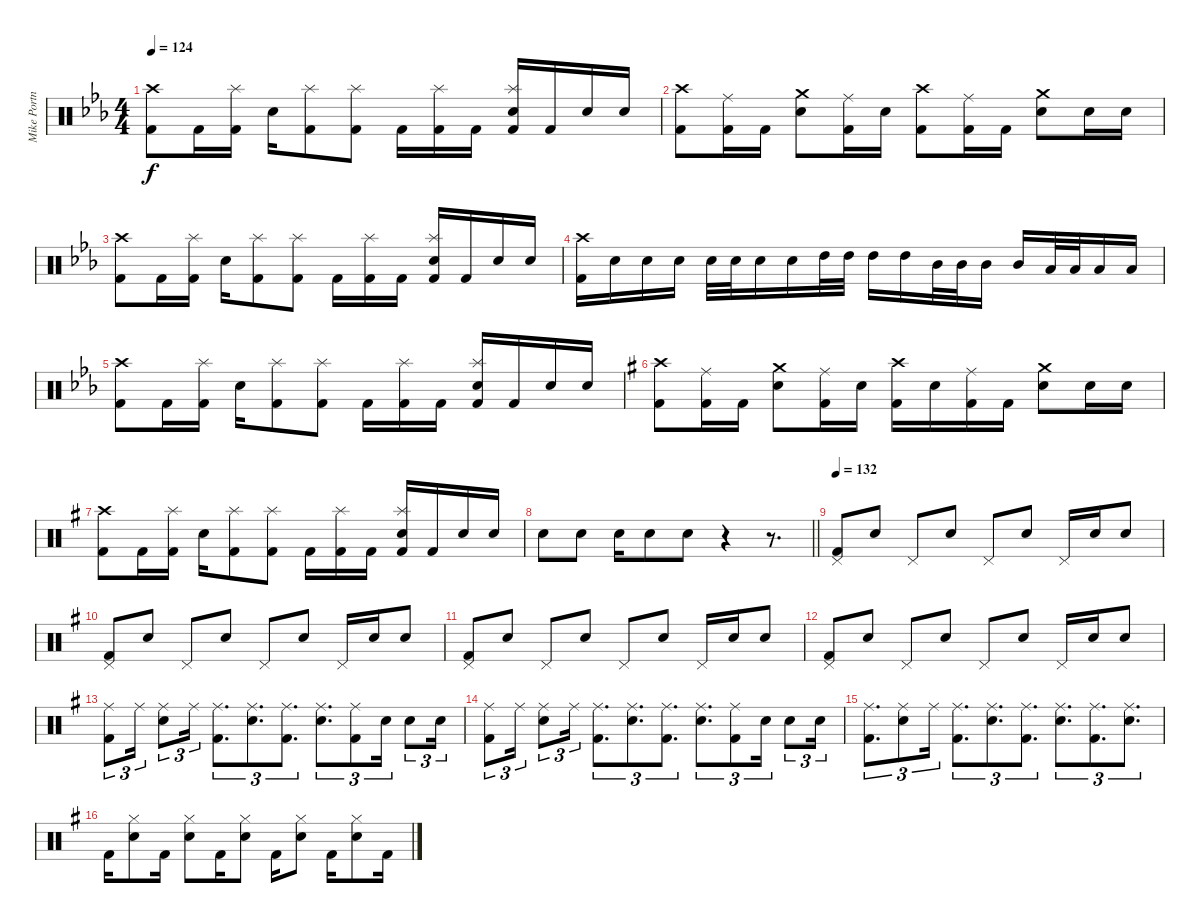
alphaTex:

\track ("Mike Portnoy" "Mike Portn") {instrument percussion}
\staff {score}
\articulation defaults
\ts (4 4)
\tempo 124
\clef neutral
\ks eb
("Crash high (hit)" "Kick (hit) 2").8{dy f} "Kick (hit) 2".16 ("Splash (hit)" "Kick (hit) 2").16 "Snare (hit) 2".16 ("Splash (hit)" "Kick (hit) 2").8 ("Splash (hit)" "Kick (hit) 2").8 "Kick (hit) 2".16 ("Splash (hit)" "Kick (hit) 2").16 "Kick (hit) 2".16 ("Splash (hit)" "Snare (hit) 2" "Kick (hit) 2").16 "Kick (hit) 2".16 "Snare (hit) 2".16 "Snare (hit) 2".16 |
("Crash high (hit)" "Kick (hit) 2").8 ("Ride (middle)" "Kick (hit) 2").16 "Kick (hit) 2".16 ("Crash medium (hit)" "Snare (hit) 2").8 ("Ride (middle)" "Kick (hit) 2").16 "Snare (hit) 2".16 ("Crash high (hit)" "Kick (hit) 2").8 ("Ride (middle)" "Kick (hit) 2").16 "Kick (hit) 2".16 ("Crash medium (hit)" "Snare (hit) 2").8 "Snare (hit) 2".16 "Snare (hit) 2".16 |
("Crash high (hit)" "Kick (hit) 2").8 "Kick (hit) 2".16 ("Splash (hit)" "Kick (hit) 2").16 "Snare (hit) 2".16 ("Splash (hit)" "Kick (hit) 2").8 ("Splash (hit)" "Kick (hit) 2").8 "Kick (hit) 2".16 ("Splash (hit)" "Kick (hit) 2").16 "Kick (hit) 2".16 ("Splash (hit)" "Snare (hit) 2" "Kick (hit) 2").16 "Kick (hit) 2".16 "Snare (hit) 2".16 "Snare (hit) 2".16 |
("Crash high (hit)" "Kick (hit) 2").16 "Snare (hit) 2".16 "Snare (hit) 2".16 "Snare (hit) 2".16 "Snare (hit) 2".32 "Snare (hit) 2".32 "Snare (hit) 2".16 "Snare (hit) 2".16 "High Tom (hit)".32 "High Tom (hit)".32 "High Tom (hit)".16 "High Tom (hit)".16 "Mid Tom (hit)".32 "Mid Tom (hit)".32 "Mid Tom (hit)".16 "Mid Tom (hit)".16 "Low Tom (hit)".32 "Low Tom (hit)".32 "Low Tom (hit)".16 "Low Tom (hit)".16 |
("Crash high (hit)" "Kick (hit) 2").8 "Kick (hit) 2".16 ("Splash (hit)" "Kick (hit) 2").16 "Snare (hit) 2".16 ("Splash (hit)" "Kick (hit) 2").8 ("Splash (hit)" "Kick (hit) 2").8 "Kick (hit) 2".16 ("Splash (hit)" "Kick (hit) 2").16 "Kick (hit) 2".16 ("Splash (hit)" "Snare (hit) 2" "Kick (hit) 2").16 "Kick (hit) 2".16 "Snare (hit) 2".16 "Snare (hit) 2".16 |
\ks g
("Crash high (hit)" "Kick (hit) 2").8 ("Ride (middle)" "Kick (hit) 2").16 "Kick (hit) 2".16 ("Crash medium (hit)" "Snare (hit) 2").8 ("Ride (middle)" "Kick (hit) 2").16 "Snare (hit) 2".16 ("Crash high (hit)" "Kick (hit) 2").16 "Snare (hit) 2".16 ("Ride (middle)" "Kick (hit) 2").16 "Kick (hit) 2".16 ("Crash medium (hit)" "Snare (hit) 2").8 "Snare (hit) 2".16 "Snare (hit) 2".16 |
("Crash high (hit)" "Kick (hit) 2").8 "Kick (hit) 2".16 ("Splash (hit)" "Kick (hit) 2").16 "Snare (hit) 2".16 ("Splash (hit)" "Kick (hit) 2").8 ("Splash (hit)" "Kick (hit) 2").8 "Kick (hit) 2".16 ("Splash (hit)" "Kick (hit) 2").16 "Kick (hit) 2".16 ("Splash (hit)" "Snare (hit) 2" "Kick (hit) 2").16 "Kick (hit) 2".16 "Snare (hit) 2".16 "Snare (hit) 2".16 |
\barLineRight lightlight "Snare (hit) 2".8 "Snare (hit) 2".8 "Snare (hit) 2".16 "Snare (hit) 2".8 "Snare (hit) 2".8
r.4 r.8{d} |
\tempo 132
("Pedal Hi-Hat (hit)" "Kick (hit) 2").8 "Snare (hit) 2".8 "Pedal Hi-Hat (hit)".8 "Snare (hit) 2".8 "Pedal Hi-Hat (hit)".8 "Snare (hit) 2".8 "Pedal Hi-Hat (hit)".16 "Snare (hit) 2".16 "Snare (hit) 2".8 |
("Pedal Hi-Hat (hit)" "Kick (hit) 2").8 "Snare (hit) 2".8 "Pedal Hi-Hat (hit)".8 "Snare (hit) 2".8 "Pedal Hi-Hat (hit)".8 "Snare (hit) 2".8 "Pedal Hi-Hat (hit)".16 "Snare (hit) 2".16 "Snare (hit) 2".8 |
("Pedal Hi-Hat (hit)" "Kick (hit) 2").8 "Snare (hit) 2".8 "Pedal Hi-Hat (hit)".8 "Snare (hit) 2".8 "Pedal Hi-Hat (hit)".8 "Snare (hit) 2".8 "Pedal Hi-Hat (hit)".16 "Snare (hit) 2".16 "Snare (hit) 2".8 |
("Pedal Hi-Hat (hit)" "Kick (hit) 2").8 "Snare (hit) 2".8 "Pedal Hi-Hat (hit)".8 "Snare (hit) 2".8 "Pedal Hi-Hat (hit)".8 "Snare (hit) 2".8 "Pedal Hi-Hat (hit)".16 "Snare (hit) 2".16 "Snare (hit) 2".8 |
("Ride (middle)" "Kick (hit) 2").8{tu (3 2)} "Ride (middle)".16{tu (3 2)} ("Ride (middle)" "Snare (hit) 2").8{tu (3 2)} "Ride (middle)".16{tu (3 2)} ("Ride (middle)" "Kick (hit) 2").8{d tu (3 2)} ("Ride (middle)" "Snare (hit) 2").8{d tu (3 2)} ("Ride (middle)" "Kick (hit) 2").8{d tu (3 2)} ("Ride (middle)" "Snare (hit) 2").8{d tu (3 2)} ("Ride (middle)" "Kick (hit) 2").8{tu (3 2)} "Snare (hit) 2".16{tu (3 2)} "Snare (hit) 2".8{tu (3 2)} "Snare (hit) 2".16{tu (3 2)} |
("Ride (middle)" "Kick (hit) 2").8{tu (3 2)} "Ride (middle)".16{tu (3 2)} ("Ride (middle)" "Snare (hit) 2").8{tu (3 2)} "Ride (middle)".16{tu (3 2)} ("Ride (middle)" "Kick (hit) 2").8{d tu (3 2)} ("Ride (middle)" "Snare (hit) 2").8{d tu (3 2)} ("Ride (middle)" "Kick (hit) 2").8{d tu (3 2)} ("Ride (middle)" "Snare (hit) 2").8{d tu (3 2)} ("Ride (middle)" "Kick (hit) 2").8{tu (3 2)} "Snare (hit) 2".16{tu (3 2)} "Snare (hit) 2".8{tu (3 2)} "Snare (hit) 2".16{tu (3 2)} |
("Ride (middle)" "Kick (hit) 2").8{d tu (3 2)} ("Ride (middle)" "Snare (hit) 2").8{tu (3 2)} "Ride (middle)".16{tu (3 2)} ("Ride (middle)" "Kick (hit) 2").8{d tu (3 2)} ("Ride (middle)" "Snare (hit) 2").8{d tu (3 2)} ("Ride (middle)" "Kick (hit) 2").8{d tu (3 2)} ("Ride (middle)" "Snare (hit) 2").8{d tu (3 2)} ("Ride (middle)" "Kick (hit) 2").8{d tu (3 2)} ("Ride (middle)" "Snare (hit) 2").8{d tu (3 2)} |
"Kick (hit) 2".16 ("Hi-Hat (closed)" "Snare (hit) 2").8 "Kick (hit) 2".16 ("Hi-Hat (closed)" "Snare (hit) 2").8 "Kick (hit) 2".16 ("Hi-Hat (closed)" "Snare (hit) 2").8 "Kick (hit) 2".16 ("Hi-Hat (closed)" "Snare (hit) 2").8 "Kick (hit) 2".16 ("Hi-Hat (closed)" "Snare (hit) 2").8 "Kick (hit) 2".16
